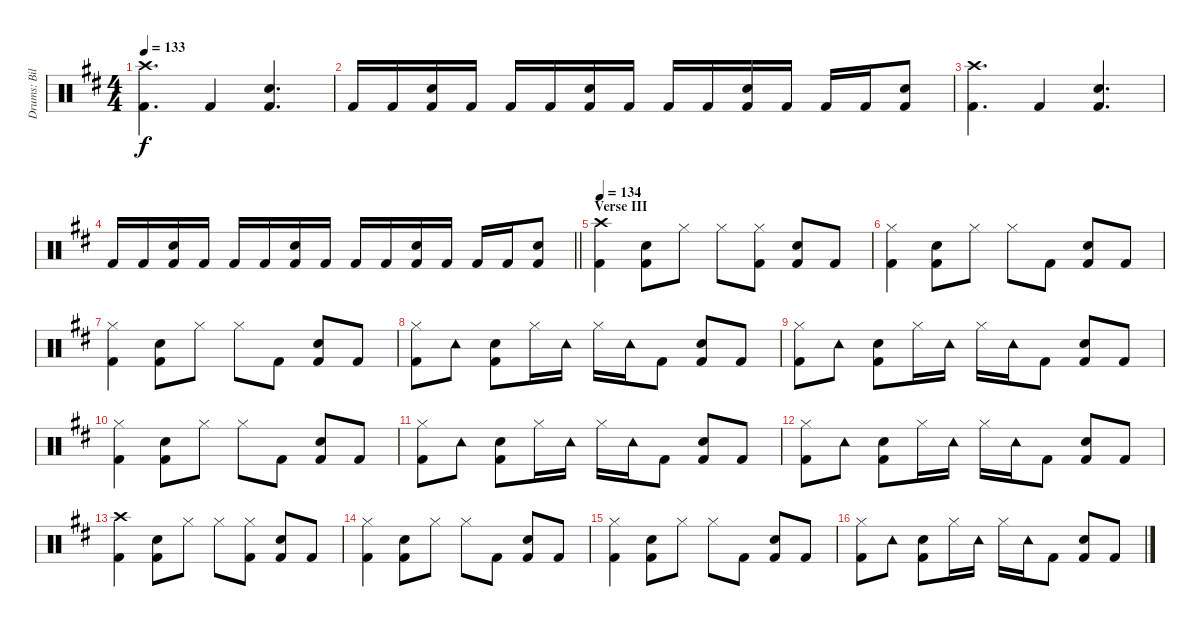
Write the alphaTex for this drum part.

\track ("Drums: Bill" "Drums: Bil") {instrument percussion}
\staff {score}
\articulation defaults
\ts (4 4)
\tempo 133
\clef neutral
\ks d
("Crash high (hit)" "Kick (hit) 2").4{d dy f} "Kick (hit) 2".4 ("Snare (hit) 2" "Kick (hit) 2").4{d} |
"Kick (hit) 2".16 "Kick (hit) 2".16 ("Snare (hit) 2" "Kick (hit) 2").16 "Kick (hit) 2".16 "Kick (hit) 2".16 "Kick (hit) 2".16 ("Snare (hit) 2" "Kick (hit) 2").16 "Kick (hit) 2".16 "Kick (hit) 2".16 "Kick (hit) 2".16 ("Snare (hit) 2" "Kick (hit) 2").16 "Kick (hit) 2".16 "Kick (hit) 2".16 "Kick (hit) 2".16 ("Snare (hit) 2" "Kick (hit) 2").8 |
("Crash high (hit)" "Kick (hit) 2").4{d} "Kick (hit) 2".4 ("Snare (hit) 2" "Kick (hit) 2").4{d} |
\barLineRight lightlight "Kick (hit) 2".16 "Kick (hit) 2".16
("Snare (hit) 2" "Kick (hit) 2").16 "Kick (hit) 2".16 "Kick (hit) 2".16 "Kick (hit) 2".16 ("Snare (hit) 2" "Kick (hit) 2").16 "Kick (hit) 2".16 "Kick (hit) 2".16 "Kick (hit) 2".16 ("Snare (hit) 2" "Kick (hit) 2").16 "Kick (hit) 2".16 "Kick (hit) 2".16 "Kick (hit) 2".16 ("Snare (hit) 2" "Kick (hit) 2").8 |
\section ("" "Verse III")
\tempo 134
("Crash high (hit)" "Kick (hit) 2").4 ("Snare (hit) 2" "Kick (hit) 2").8 "Hi-Hat (closed)".8 "Hi-Hat (closed)".8 ("Hi-Hat (closed)" "Kick (hit) 2").8 ("Snare (hit) 2" "Kick (hit) 2").8 "Kick (hit) 2".8 |
("Hi-Hat (closed)" "Kick (hit) 2").4 ("Snare (hit) 2" "Kick (hit) 2").8 "Hi-Hat (closed)".8 "Hi-Hat (closed)".8 "Kick (hit) 2".8 ("Snare (hit) 2" "Kick (hit) 2").8 "Kick (hit) 2".8 |
("Hi-Hat (closed)" "Kick (hit) 2").4 ("Snare (hit) 2" "Kick (hit) 2").8 "Hi-Hat (closed)".8 "Hi-Hat (closed)".8 "Kick (hit) 2".8 ("Snare (hit) 2" "Kick (hit) 2").8 "Kick (hit) 2".8 |
("Hi-Hat (closed)" "Kick (hit) 2").8 "Tambourine (hit)".8 ("Snare (hit) 2" "Kick (hit) 2").8 "Hi-Hat (closed)".16 "Tambourine (hit)".16 "Hi-Hat (closed)".16 "Tambourine (hit)".16 "Kick (hit) 2".8 ("Snare (hit) 2" "Kick (hit) 2").8 "Kick (hit) 2".8 |
("Hi-Hat (closed)" "Kick (hit) 2").8 "Tambourine (hit)".8 ("Snare (hit) 2" "Kick (hit) 2").8 "Hi-Hat (closed)".16 "Tambourine (hit)".16 "Hi-Hat (closed)".16 "Tambourine (hit)".16 "Kick (hit) 2".8 ("Snare (hit) 2" "Kick (hit) 2").8 "Kick (hit) 2".8 |
("Hi-Hat (closed)" "Kick (hit) 2").4 ("Snare (hit) 2" "Kick (hit) 2").8 "Hi-Hat (closed)".8 "Hi-Hat (closed)".8 "Kick (hit) 2".8 ("Snare (hit) 2" "Kick (hit) 2").8 "Kick (hit) 2".8 |
("Hi-Hat (closed)" "Kick (hit) 2").8 "Tambourine (hit)".8 ("Snare (hit) 2" "Kick (hit) 2").8 "Hi-Hat (closed)".16 "Tambourine (hit)".16 "Hi-Hat (closed)".16 "Tambourine (hit)".16 "Kick (hit) 2".8 ("Snare (hit) 2" "Kick (hit) 2").8 "Kick (hit) 2".8 |
("Hi-Hat (closed)" "Kick (hit) 2").8 "Tambourine (hit)".8 ("Snare (hit) 2" "Kick (hit) 2").8 "Hi-Hat (closed)".16 "Tambourine (hit)".16 "Hi-Hat (closed)".16 "Tambourine (hit)".16 "Kick (hit) 2".8 ("Snare (hit) 2" "Kick (hit) 2").8 "Kick (hit) 2".8 |
("Crash high (hit)" "Kick (hit) 2").4 ("Snare (hit) 2" "Kick (hit) 2").8 "Hi-Hat (closed)".8 "Hi-Hat (closed)".8 ("Hi-Hat (closed)" "Kick (hit) 2").8 ("Snare (hit) 2" "Kick (hit) 2").8 "Kick (hit) 2".8 |
("Hi-Hat (closed)" "Kick (hit) 2").4 ("Snare (hit) 2" "Kick (hit) 2").8 "Hi-Hat (closed)".8 "Hi-Hat (closed)".8 "Kick (hit) 2".8 ("Snare (hit) 2" "Kick (hit) 2").8 "Kick (hit) 2".8 |
("Hi-Hat (closed)" "Kick (hit) 2").4 ("Snare (hit) 2" "Kick (hit) 2").8 "Hi-Hat (closed)".8 "Hi-Hat (closed)".8 "Kick (hit) 2".8 ("Snare (hit) 2" "Kick (hit) 2").8 "Kick (hit) 2".8 |
("Hi-Hat (closed)" "Kick (hit) 2").8 "Tambourine (hit)".8 ("Snare (hit) 2" "Kick (hit) 2").8 "Hi-Hat (closed)".16 "Tambourine (hit)".16 "Hi-Hat (closed)".16 "Tambourine (hit)".16 "Kick (hit) 2".8 ("Snare (hit) 2" "Kick (hit) 2").8 "Kick (hit) 2".8
